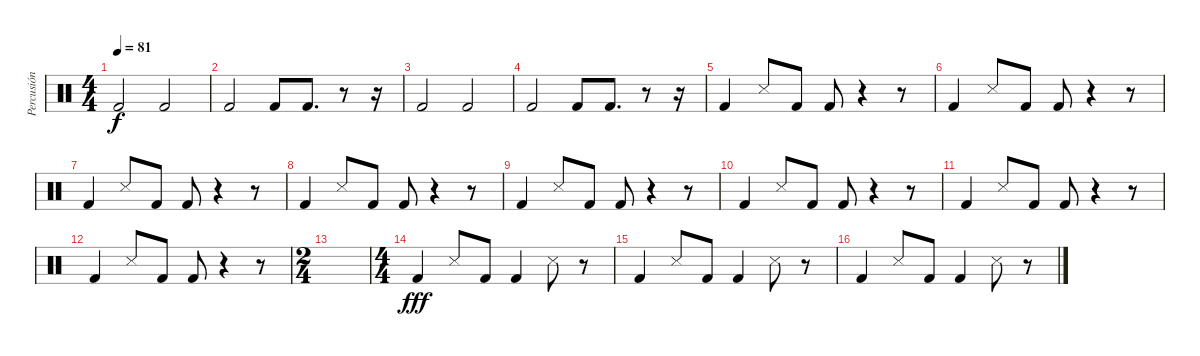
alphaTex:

\track ("Percusión" "Percusión") {instrument percussion}
\staff {score}
\articulation defaults
\ts (4 4)
\tempo 81
\clef neutral
\ks c "Kick (hit) 2".2{dy f} "Kick (hit) 2".2
|
"Kick (hit) 2".2 "Kick (hit) 2".8 "Kick (hit) 2".8{d} r.8 r.16 |
"Kick (hit) 2".2 "Kick (hit) 2".2 |
"Kick (hit) 2".2 "Kick (hit) 2".8 "Kick (hit) 2".8{d} r.8 r.16 |
"Kick (hit) 2".4 "Snare (side stick) 3".8 "Kick (hit) 2".8 "Kick (hit) 2".8 r.4 r.8 |
"Kick (hit) 2".4 "Snare (side stick) 3".8 "Kick (hit) 2".8 "Kick (hit) 2".8 r.4 r.8 |
"Kick (hit) 2".4 "Snare (side stick) 3".8 "Kick (hit) 2".8 "Kick (hit) 2".8 r.4 r.8 |
"Kick (hit) 2".4 "Snare (side stick) 3".8 "Kick (hit) 2".8 "Kick (hit) 2".8 r.4 r.8 |
"Kick (hit) 2".4 "Snare (side stick) 3".8 "Kick (hit) 2".8 "Kick (hit) 2".8 r.4 r.8 |
"Kick (hit) 2".4 "Snare (side stick) 3".8 "Kick (hit) 2".8 "Kick (hit) 2".8 r.4 r.8 |
"Kick (hit) 2".4 "Snare (side stick) 3".8 "Kick (hit) 2".8 "Kick (hit) 2".8 r.4 r.8 |
"Kick (hit) 2".4 "Snare (side stick) 3".8 "Kick (hit) 2".8 "Kick (hit) 2".8 r.4 r.8 |
\ts (2 4)
|
\ts (4 4)
"Kick (hit) 2".4{dy fff} "Snare (side stick) 3".8 "Kick (hit) 2".8 "Kick (hit) 2".4 "Snare (side stick) 3".8 r.8 |
"Kick (hit) 2".4 "Snare (side stick) 3".8 "Kick (hit) 2".8 "Kick (hit) 2".4 "Snare (side stick) 3".8 r.8 |
"Kick (hit) 2".4 "Snare (side stick) 3".8 "Kick (hit) 2".8 "Kick (hit) 2".4 "Snare (side stick) 3".8 r.8
